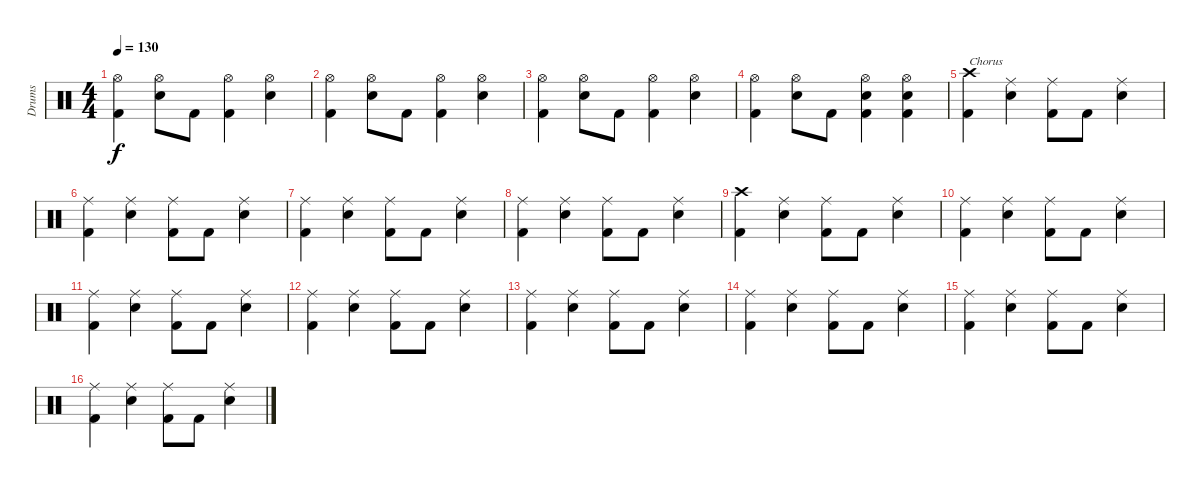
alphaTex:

\track ("Drums" "Drums") {instrument percussion}
\staff {score}
\articulation defaults
\ts (4 4)
\tempo 130
\clef neutral
\ks c
("Hi-Hat (open)" "Kick (hit) 2").4{dy f} ("Hi-Hat (open)" "Snare (hit) 2").8 "Kick (hit) 2".8 ("Hi-Hat (open)" "Kick (hit) 2").4 ("Hi-Hat (open)" "Snare (hit) 2").4 |
("Hi-Hat (open)" "Kick (hit) 2").4 ("Hi-Hat (open)" "Snare (hit) 2").8 "Kick (hit) 2".8 ("Hi-Hat (open)" "Kick (hit) 2").4 ("Hi-Hat (open)" "Snare (hit) 2").4 |
("Hi-Hat (open)" "Kick (hit) 2").4 ("Hi-Hat (open)" "Snare (hit) 2").8 "Kick (hit) 2".8 ("Hi-Hat (open)" "Kick (hit) 2").4 ("Hi-Hat (open)" "Snare (hit) 2").4 |
("Hi-Hat (open)" "Kick (hit) 2").4 ("Hi-Hat (open)" "Snare (hit) 2").8 "Kick (hit) 2".8 ("Hi-Hat (open)" "Snare (hit) 2" "Kick (hit) 2").4 ("Hi-Hat (open)" "Snare (hit) 2" "Kick (hit) 2").4 |
("Crash high (hit)" "Kick (hit) 2").4{txt "Chorus"} ("Ride (middle)" "Snare (hit) 2").4 ("Ride (middle)" "Kick (hit) 2").8 "Kick (hit) 2".8 ("Ride (middle)" "Snare (hit) 2").4 |
("Ride (middle)" "Kick (hit) 2").4 ("Ride (middle)" "Snare (hit) 2").4 ("Ride (middle)" "Kick (hit) 2").8 "Kick (hit) 2".8 ("Ride (middle)" "Snare (hit) 2").4 |
("Ride (middle)" "Kick (hit) 2").4 ("Ride (middle)" "Snare (hit) 2").4 ("Ride (middle)" "Kick (hit) 2").8 "Kick (hit) 2".8 ("Ride (middle)" "Snare (hit) 2").4 |
("Ride (middle)" "Kick (hit) 2").4 ("Ride (middle)" "Snare (hit) 2").4 ("Ride (middle)" "Kick (hit) 2").8 "Kick (hit) 2".8 ("Ride (middle)" "Snare (hit) 2").4 |
("Crash high (hit)" "Kick (hit) 2").4 ("Ride (middle)" "Snare (hit) 2").4 ("Ride (middle)" "Kick (hit) 2").8 "Kick (hit) 2".8 ("Ride (middle)" "Snare (hit) 2").4 |
("Ride (middle)" "Kick (hit) 2").4 ("Ride (middle)" "Snare (hit) 2").4 ("Ride (middle)" "Kick (hit) 2").8 "Kick (hit) 2".8 ("Ride (middle)" "Snare (hit) 2").4 |
("Ride (middle)" "Kick (hit) 2").4 ("Ride (middle)" "Snare (hit) 2").4 ("Ride (middle)" "Kick (hit) 2").8 "Kick (hit) 2".8 ("Ride (middle)" "Snare (hit) 2").4 |
("Ride (middle)" "Kick (hit) 2").4 ("Ride (middle)" "Snare (hit) 2").4 ("Ride (middle)" "Kick (hit) 2").8 "Kick (hit) 2".8 ("Ride (middle)" "Snare (hit) 2").4 |
("Ride (middle)" "Kick (hit) 2").4 ("Ride (middle)" "Snare (hit) 2").4 ("Ride (middle)" "Kick (hit) 2").8 "Kick (hit) 2".8 ("Ride (middle)" "Snare (hit) 2").4 |
("Ride (middle)" "Kick (hit) 2").4 ("Ride (middle)" "Snare (hit) 2").4 ("Ride (middle)" "Kick (hit) 2").8 "Kick (hit) 2".8 ("Ride (middle)" "Snare (hit) 2").4 |
("Ride (middle)" "Kick (hit) 2").4 ("Ride (middle)" "Snare (hit) 2").4 ("Ride (middle)" "Kick (hit) 2").8 "Kick (hit) 2".8 ("Ride (middle)" "Snare (hit) 2").4 |
("Ride (middle)" "Kick (hit) 2").4 ("Ride (middle)" "Snare (hit) 2").4 ("Ride (middle)" "Kick (hit) 2").8 "Kick (hit) 2".8 ("Ride (middle)" "Snare (hit) 2").4
